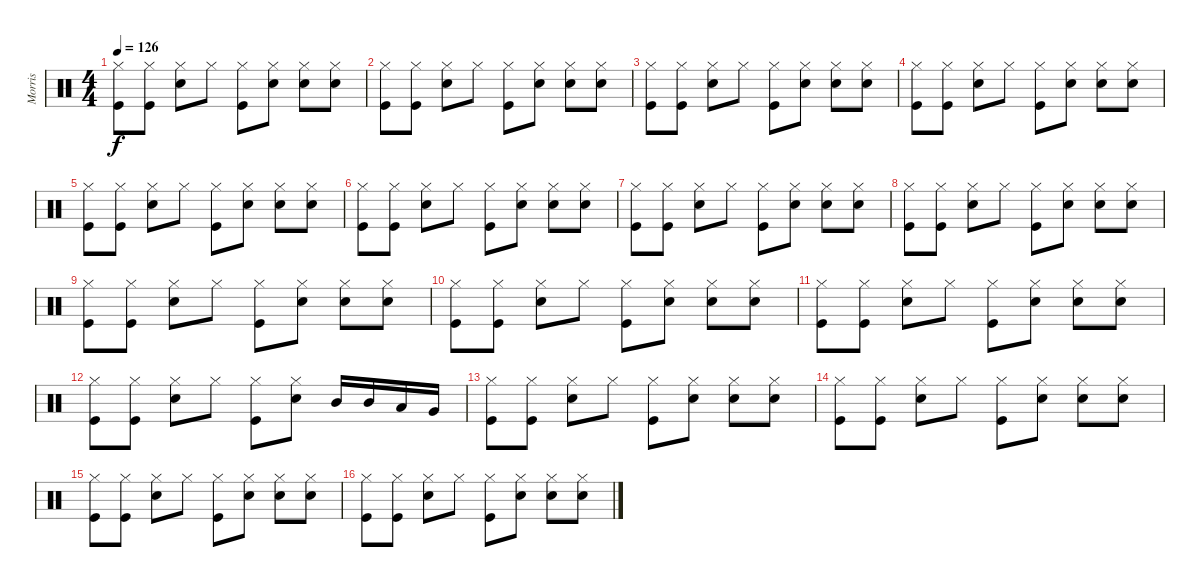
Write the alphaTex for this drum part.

\track ("Morris" "Morris") {instrument percussion}
\staff {score}
\articulation defaults
\ts (4 4)
\tempo 126
\clef neutral
\ks c
("Hi-Hat (closed)" "Kick (hit)").8{dy f} ("Hi-Hat (closed)" "Kick (hit)").8 ("Hi-Hat (closed)" "Electric Snare (hit)").8 "Hi-Hat (closed)".8 ("Hi-Hat (closed)" "Kick (hit)").8 ("Hi-Hat (closed)" "Electric Snare (hit)").8 ("Hi-Hat (closed)" "Electric Snare (hit)").8 ("Hi-Hat (closed)" "Electric Snare (hit)").8 |
("Hi-Hat (closed)" "Kick (hit)").8 ("Hi-Hat (closed)" "Kick (hit)").8 ("Hi-Hat (closed)" "Electric Snare (hit)").8 "Hi-Hat (closed)".8 ("Hi-Hat (closed)" "Kick (hit)").8 ("Hi-Hat (closed)" "Electric Snare (hit)").8 ("Hi-Hat (closed)" "Electric Snare (hit)").8 ("Hi-Hat (closed)" "Electric Snare (hit)").8 |
("Hi-Hat (closed)" "Kick (hit)").8 ("Hi-Hat (closed)" "Kick (hit)").8 ("Hi-Hat (closed)" "Electric Snare (hit)").8 "Hi-Hat (closed)".8 ("Hi-Hat (closed)" "Kick (hit)").8 ("Hi-Hat (closed)" "Electric Snare (hit)").8 ("Hi-Hat (closed)" "Electric Snare (hit)").8 ("Hi-Hat (closed)" "Electric Snare (hit)").8 |
("Hi-Hat (closed)" "Kick (hit)").8 ("Hi-Hat (closed)" "Kick (hit)").8 ("Hi-Hat (closed)" "Electric Snare (hit)").8 "Hi-Hat (closed)".8 ("Hi-Hat (closed)" "Kick (hit)").8 ("Hi-Hat (closed)" "Electric Snare (hit)").8 ("Hi-Hat (closed)" "Electric Snare (hit)").8 ("Hi-Hat (closed)" "Electric Snare (hit)").8 |
("Hi-Hat (closed)" "Kick (hit)").8 ("Hi-Hat (closed)" "Kick (hit)").8 ("Hi-Hat (closed)" "Electric Snare (hit)").8 "Hi-Hat (closed)".8 ("Hi-Hat (closed)" "Kick (hit)").8 ("Hi-Hat (closed)" "Electric Snare (hit)").8 ("Hi-Hat (closed)" "Electric Snare (hit)").8 ("Hi-Hat (closed)" "Electric Snare (hit)").8 |
("Hi-Hat (closed)" "Kick (hit)").8 ("Hi-Hat (closed)" "Kick (hit)").8 ("Hi-Hat (closed)" "Electric Snare (hit)").8 "Hi-Hat (closed)".8 ("Hi-Hat (closed)" "Kick (hit)").8 ("Hi-Hat (closed)" "Electric Snare (hit)").8 ("Hi-Hat (closed)" "Electric Snare (hit)").8 ("Hi-Hat (closed)" "Electric Snare (hit)").8 |
("Hi-Hat (closed)" "Kick (hit)").8 ("Hi-Hat (closed)" "Kick (hit)").8 ("Hi-Hat (closed)" "Electric Snare (hit)").8 "Hi-Hat (closed)".8 ("Hi-Hat (closed)" "Kick (hit)").8 ("Hi-Hat (closed)" "Electric Snare (hit)").8 ("Hi-Hat (closed)" "Electric Snare (hit)").8 ("Hi-Hat (closed)" "Electric Snare (hit)").8 |
("Hi-Hat (closed)" "Kick (hit)").8 ("Hi-Hat (closed)" "Kick (hit)").8 ("Hi-Hat (closed)" "Electric Snare (hit)").8 "Hi-Hat (closed)".8 ("Hi-Hat (closed)" "Kick (hit)").8 ("Hi-Hat (closed)" "Electric Snare (hit)").8 ("Hi-Hat (closed)" "Electric Snare (hit)").8 ("Hi-Hat (closed)" "Electric Snare (hit)").8 |
("Hi-Hat (closed)" "Kick (hit)").8 ("Hi-Hat (closed)" "Kick (hit)").8 ("Hi-Hat (closed)" "Electric Snare (hit)").8 "Hi-Hat (closed)".8 ("Hi-Hat (closed)" "Kick (hit)").8 ("Hi-Hat (closed)" "Electric Snare (hit)").8 ("Hi-Hat (closed)" "Electric Snare (hit)").8 ("Hi-Hat (closed)" "Electric Snare (hit)").8 |
("Hi-Hat (closed)" "Kick (hit)").8 ("Hi-Hat (closed)" "Kick (hit)").8 ("Hi-Hat (closed)" "Electric Snare (hit)").8 "Hi-Hat (closed)".8 ("Hi-Hat (closed)" "Kick (hit)").8 ("Hi-Hat (closed)" "Electric Snare (hit)").8 ("Hi-Hat (closed)" "Electric Snare (hit)").8 ("Hi-Hat (closed)" "Electric Snare (hit)").8 |
("Hi-Hat (closed)" "Kick (hit)").8 ("Hi-Hat (closed)" "Kick (hit)").8 ("Hi-Hat (closed)" "Electric Snare (hit)").8 "Hi-Hat (closed)".8 ("Hi-Hat (closed)" "Kick (hit)").8 ("Hi-Hat (closed)" "Electric Snare (hit)").8 ("Hi-Hat (closed)" "Electric Snare (hit)").8 ("Hi-Hat (closed)" "Electric Snare (hit)").8 |
("Hi-Hat (closed)" "Kick (hit)").8 ("Hi-Hat (closed)" "Kick (hit)").8 ("Hi-Hat (closed)" "Electric Snare (hit)").8 "Hi-Hat (closed)".8 ("Hi-Hat (closed)" "Kick (hit)").8 ("Hi-Hat (closed)" "Electric Snare (hit)").8 "Mid Tom (hit)".16 "Mid Tom (hit)".16 "Low Tom (hit)".16 "Very Low Tom (hit)".16 |
("Hi-Hat (closed)" "Kick (hit)").8 ("Hi-Hat (closed)" "Kick (hit)").8 ("Hi-Hat (closed)" "Electric Snare (hit)").8 "Hi-Hat (closed)".8 ("Hi-Hat (closed)" "Kick (hit)").8 ("Hi-Hat (closed)" "Electric Snare (hit)").8 ("Hi-Hat (closed)" "Electric Snare (hit)").8 ("Hi-Hat (closed)" "Electric Snare (hit)").8 |
("Hi-Hat (closed)" "Kick (hit)").8 ("Hi-Hat (closed)" "Kick (hit)").8 ("Hi-Hat (closed)" "Electric Snare (hit)").8 "Hi-Hat (closed)".8 ("Hi-Hat (closed)" "Kick (hit)").8 ("Hi-Hat (closed)" "Electric Snare (hit)").8 ("Hi-Hat (closed)" "Electric Snare (hit)").8 ("Hi-Hat (closed)" "Electric Snare (hit)").8 |
("Hi-Hat (closed)" "Kick (hit)").8 ("Hi-Hat (closed)" "Kick (hit)").8 ("Hi-Hat (closed)" "Electric Snare (hit)").8 "Hi-Hat (closed)".8 ("Hi-Hat (closed)" "Kick (hit)").8 ("Hi-Hat (closed)" "Electric Snare (hit)").8 ("Hi-Hat (closed)" "Electric Snare (hit)").8 ("Hi-Hat (closed)" "Electric Snare (hit)").8 |
("Hi-Hat (closed)" "Kick (hit)").8 ("Hi-Hat (closed)" "Kick (hit)").8 ("Hi-Hat (closed)" "Electric Snare (hit)").8 "Hi-Hat (closed)".8 ("Hi-Hat (closed)" "Kick (hit)").8 ("Hi-Hat (closed)" "Electric Snare (hit)").8 ("Hi-Hat (closed)" "Electric Snare (hit)").8 ("Hi-Hat (closed)" "Electric Snare (hit)").8
